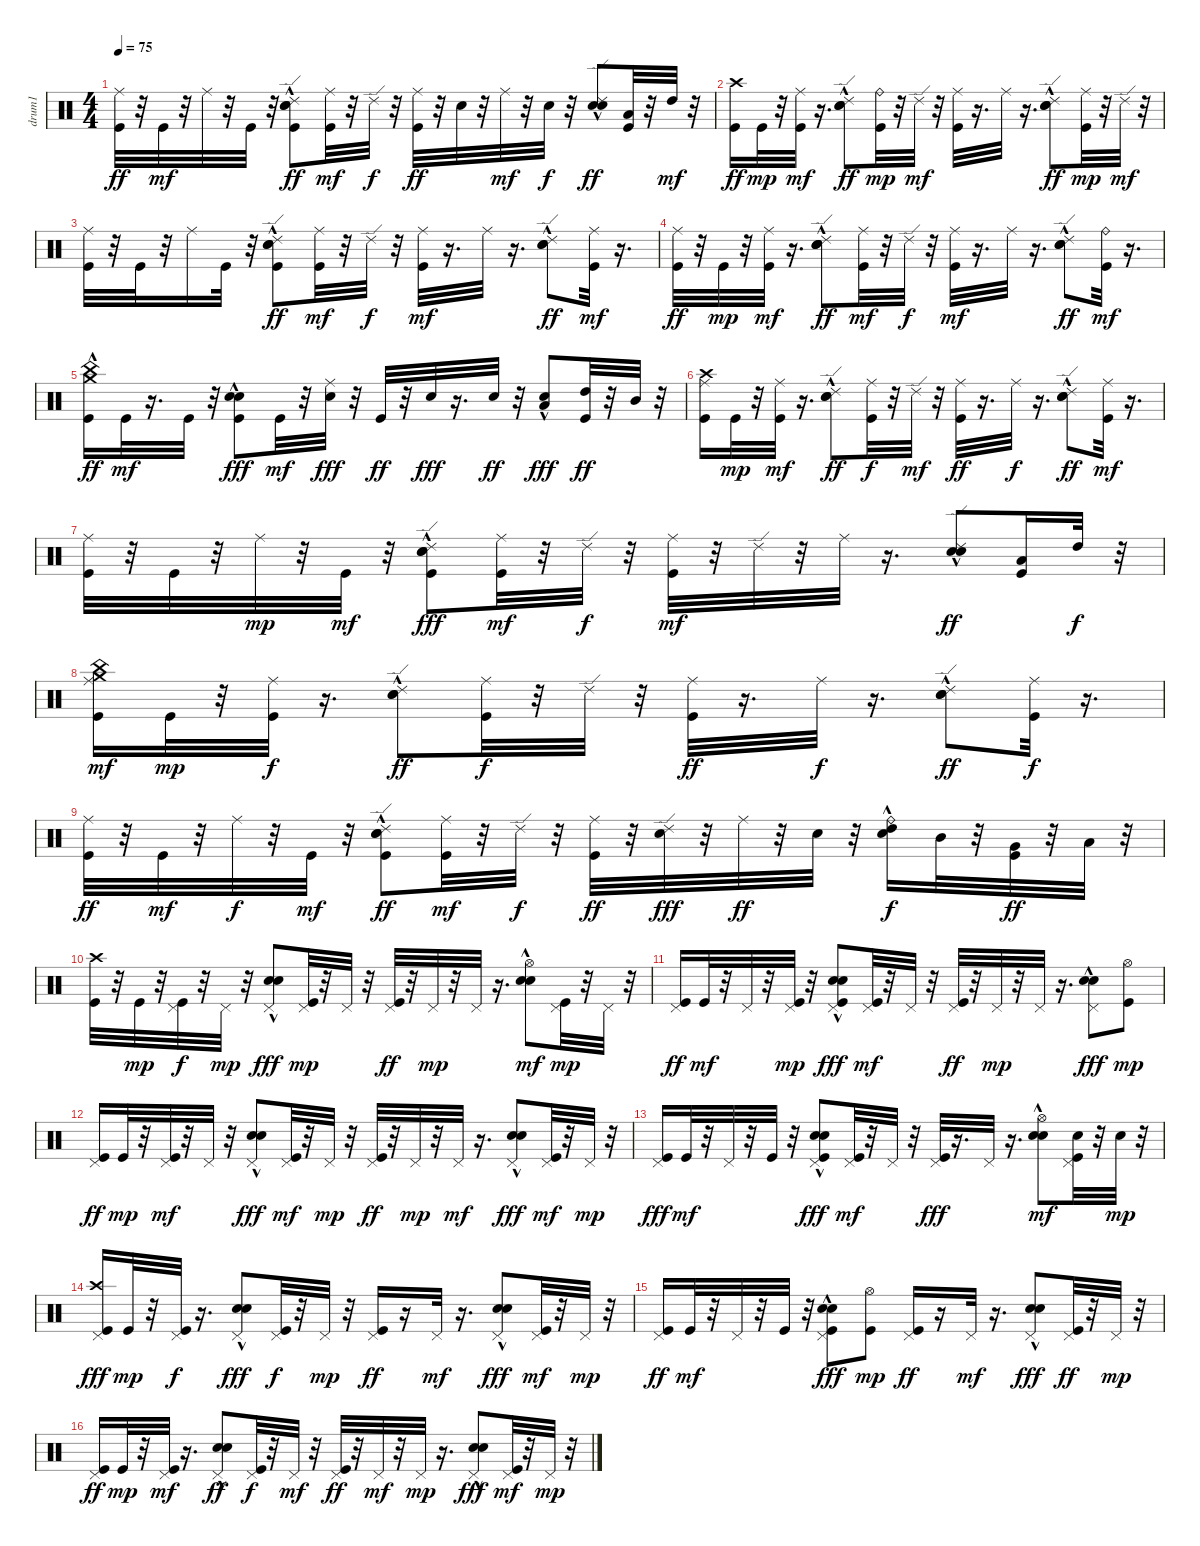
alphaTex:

\track ("drum1" "drum1") {instrument percussion}
\staff {score}
\articulation defaults
\ts (4 4)
\tempo 75
\clef neutral
\ks c
("Kick (hit)" "Ride (middle)").32{dy ff} r.32 "Kick (hit)".32{dy mf} r.32 "Ride (middle)".32 r.32 "Kick (hit)".32 r.32 ("Kick (hit)" "Hand Clap (hit)"{hac} "Electric Snare (hit)" "Ride (edge) 2").8{dy ff} ("Kick (hit)" "Ride (middle)").32{dy mf} r.32 "Ride (edge) 2".32{dy f} r.32 ("Kick (hit)" "Ride (middle)").32{dy ff} r.32 "Electric Snare (hit)".32 r.32 "Ride (middle)".32{dy mf} r.32 "Electric Snare (hit)".32{dy f} r.32 ("Hand Clap (hit)"{hac} "Electric Snare (hit)" "Ride (edge) 2").8{dy ff} ("Kick (hit)" "Low Tom (hit)").32 r.32 "High Tom (hit)".32{dy mf} r.32 |
("Kick (hit)" "Crash high (hit)").16{dy ff} "Kick (hit)".32{dy mp} r.32 ("Kick (hit)" "Ride (middle)").32{dy mf} r.16{d} ("Hand Clap (hit)"{hac} "Electric Snare (hit)" "Ride (edge) 2").8{dy ff} ("Kick (hit)" "Ride (bell)").32{dy mp} r.32 "Ride (edge) 2".32{dy mf} r.32 ("Kick (hit)" "Ride (middle)").32 r.16{d} "Ride (middle)".32 r.16{d} ("Hand Clap (hit)"{hac} "Electric Snare (hit)" "Ride (edge) 2").8{dy ff} ("Kick (hit)" "Ride (middle)").32{dy mp} r.32 "Ride (edge) 2".32{dy mf} r.32 |
("Kick (hit)" "Ride (middle)").32 r.32 "Kick (hit)".32 r.32 "Ride (middle)".16 "Kick (hit)".32 r.32 ("Kick (hit)" "Hand Clap (hit)"{hac} "Electric Snare (hit)" "Ride (edge) 2").8{dy ff} ("Kick (hit)" "Ride (middle)").32{dy mf} r.32 "Ride (edge) 2".32{dy f} r.32 ("Kick (hit)" "Ride (middle)").32{dy mf} r.16{d} "Ride (middle)".32 r.16{d} ("Hand Clap (hit)"{hac} "Electric Snare (hit)" "Ride (edge) 2").8{dy ff} ("Kick (hit)" "Ride (middle)").32{dy mf} r.16{d} |
("Kick (hit)" "Ride (middle)").32{dy ff} r.32 "Kick (hit)".32{dy mp} r.32 ("Kick (hit)" "Ride (middle)").32{dy mf} r.16{d} ("Snare (hit) 2" "Hand Clap (hit)"{hac} "Electric Snare (hit)" "Ride (edge) 2").8{dy ff} ("Kick (hit)" "Ride (middle)").32{dy mf} r.32 "Ride (edge) 2".32{dy f} r.32 ("Kick (hit)" "Ride (middle)").32{dy mf} r.16{d} "Ride (middle)".32 r.16{d} ("Hand Clap (hit)"{hac} "Electric Snare (hit)" "Ride (edge) 2").8{dy ff} ("Kick (hit)" "Ride (bell)").32{dy mf} r.16{d} |
("Kick (hit)" "China (hit)"{hac} "Crash medium (hit)").16{dy ff} "Kick (hit)".32{dy mf} r.16{d} "Kick (hit)".32 r.32 ("Kick (hit)" "Hand Clap (hit)"{hac} "Electric Snare (hit)").8{dy fff} "Kick (hit)".32{dy mf} r.32 ("Electric Snare (hit)" "Ride (middle)").32{dy fff} r.32 "Kick (hit)".32{dy ff} r.32 "Electric Snare (hit)".32{dy fff} r.16{d} "Electric Snare (hit)".32{dy ff} r.32 ("Hand Clap (hit)"{hac} "Low Tom (hit)").8{dy fff} ("Kick (hit)" "High Tom (hit)").32{dy ff} r.32 "Mid Tom (hit)".32 r.32 |
("Kick (hit)" "Crash high (hit)" "Ride (middle)").16 "Kick (hit)".32{dy mp} r.32 ("Kick (hit)" "Ride (middle)").32{dy mf} r.16{d} ("Hand Clap (hit)"{hac} "Electric Snare (hit)" "Ride (edge) 2").8{dy ff} ("Kick (hit)" "Ride (middle)").32{dy f} r.32 "Ride (edge) 2".32{dy mf} r.32 ("Kick (hit)" "Ride (middle)").32{dy ff} r.16{d} "Ride (middle)".32{dy f} r.16{d} ("Hand Clap (hit)"{hac} "Electric Snare (hit)" "Ride (edge) 2").8{dy ff} ("Kick (hit)" "Ride (middle)").32{dy mf} r.16{d} |
("Kick (hit)" "Ride (middle)").32 r.32 "Kick (hit)".32 r.32 "Ride (middle)".32{dy mp} r.32 "Kick (hit)".32{dy mf} r.32 ("Kick (hit)" "Hand Clap (hit)"{hac} "Electric Snare (hit)" "Ride (edge) 2").8{dy fff} ("Kick (hit)" "Ride (middle)").32{dy mf} r.32 "Ride (edge) 2".32{dy f} r.32 ("Kick (hit)" "Ride (middle)").32{dy mf} r.32 "Ride (edge) 2".32 r.32 "Ride (middle)".32 r.16{d} ("Hand Clap (hit)"{hac} "Electric Snare (hit)" "Ride (edge) 2").8{dy ff} ("Kick (hit)" "Low Tom (hit)").16 "High Tom (hit)".32{dy f} r.32 |
("Kick (hit)" "Ride (middle)" "China (hit)" "Crash medium (hit)").16{dy mf} "Kick (hit)".32{dy mp} r.32 ("Kick (hit)" "Ride (middle)").32{dy f} r.16{d} ("Hand Clap (hit)"{hac} "Electric Snare (hit)" "Ride (edge) 2").8{dy ff} ("Kick (hit)" "Ride (middle)").32{dy f} r.32 "Ride (edge) 2".32 r.32 ("Kick (hit)" "Ride (middle)").32{dy ff} r.16{d} "Ride (middle)".32{dy f} r.16{d} ("Hand Clap (hit)"{hac} "Electric Snare (hit)" "Ride (edge) 2").8{dy ff} ("Kick (hit)" "Ride (middle)").32{dy f} r.16{d} |
("Kick (hit)" "Ride (middle)").32{dy ff} r.32 "Kick (hit)".32{dy mf} r.32 "Ride (middle)".32{dy f} r.32 "Kick (hit)".32{dy mf} r.32 ("Kick (hit)" "Hand Clap (hit)"{hac} "Electric Snare (hit)" "Ride (edge) 2").8{dy ff} ("Kick (hit)" "Ride (middle)").32{dy mf} r.32 "Ride (edge) 2".32{dy f} r.32 ("Kick (hit)" "Ride (middle)").32{dy ff} r.32 ("Electric Snare (hit)" "Ride (edge) 2").32{dy fff} r.32 "Ride (middle)".32{dy ff} r.32 "Electric Snare (hit)".32 r.32 ("Hand Clap (hit)"{hac} "High Tom (hit)" "Ride (bell)").16{dy f} "Mid Tom (hit)".32 r.32 ("Kick (hit)" "Very Low Tom (hit)").32{dy ff} r.32 "Low Tom (hit)".32 r.32 |
("Kick (hit)" "Crash high (hit)").32 r.32 "Kick (hit)".32{dy mp} r.32 ("Kick (hit)" "Pedal Hi-Hat (hit)").32{dy f} r.32 "Pedal Hi-Hat (hit)".32{dy mp} r.32 ("Hand Clap (hit)"{hac} "Electric Snare (hit)" "Pedal Hi-Hat (hit)").8{dy fff} ("Kick (hit)" "Pedal Hi-Hat (hit)").32{dy mp} r.32 "Pedal Hi-Hat (hit)".32 r.32 ("Kick (hit)" "Pedal Hi-Hat (hit)").32{dy ff} r.32 "Pedal Hi-Hat (hit)".32{dy mp} r.32 "Pedal Hi-Hat (hit)".32 r.16{d} ("Hand Clap (hit)"{hac} "Electric Snare (hit)" "Hi-Hat (open)").8{dy mf} ("Kick (hit)" "Pedal Hi-Hat (hit)").32{dy mp} r.32 "Pedal Hi-Hat (hit)".32 r.32 |
("Kick (hit)" "Pedal Hi-Hat (hit)").16{dy ff} "Kick (hit)".32{dy mf} r.32 "Pedal Hi-Hat (hit)".32 r.32 ("Kick (hit)" "Pedal Hi-Hat (hit)").32{dy mp} r.32 ("Kick (hit)" "Hand Clap (hit)"{hac} "Electric Snare (hit)" "Pedal Hi-Hat (hit)").8{dy fff} ("Kick (hit)" "Pedal Hi-Hat (hit)").32{dy mf} r.32 "Pedal Hi-Hat (hit)".32 r.32 ("Kick (hit)" "Pedal Hi-Hat (hit)").32{dy ff} r.32 "Pedal Hi-Hat (hit)".32{dy mp} r.32 "Pedal Hi-Hat (hit)".32 r.16{d} ("Hand Clap (hit)"{hac} "Electric Snare (hit)" "Pedal Hi-Hat (hit)").8{dy fff} ("Kick (hit)" "Hi-Hat (open)").8{dy mp} |
("Kick (hit)" "Pedal Hi-Hat (hit)").16{dy ff} "Kick (hit)".32{dy mp} r.32 ("Kick (hit)" "Pedal Hi-Hat (hit)").32{dy mf} r.32 "Pedal Hi-Hat (hit)".32 r.32 ("Hand Clap (hit)"{hac} "Electric Snare (hit)" "Pedal Hi-Hat (hit)").8{dy fff} ("Kick (hit)" "Pedal Hi-Hat (hit)").32{dy mf} r.32 "Pedal Hi-Hat (hit)".32{dy mp} r.32 ("Kick (hit)" "Pedal Hi-Hat (hit)").32{dy ff} r.32 "Pedal Hi-Hat (hit)".32{dy mp} r.32 "Pedal Hi-Hat (hit)".32{dy mf} r.16{d} ("Hand Clap (hit)"{hac} "Electric Snare (hit)" "Pedal Hi-Hat (hit)").8{dy fff} ("Kick (hit)" "Pedal Hi-Hat (hit)").32{dy mf} r.32 "Pedal Hi-Hat (hit)".32{dy mp} r.32 |
("Kick (hit)" "Pedal Hi-Hat (hit)").16{dy fff} "Kick (hit)".32{dy mf} r.32 "Pedal Hi-Hat (hit)".32 r.32 "Kick (hit)".32 r.32 ("Kick (hit)" "Hand Clap (hit)"{hac} "Electric Snare (hit)" "Pedal Hi-Hat (hit)").8{dy fff} ("Kick (hit)" "Pedal Hi-Hat (hit)").32{dy mf} r.32 "Pedal Hi-Hat (hit)".32 r.32 ("Kick (hit)" "Pedal Hi-Hat (hit)").32{dy fff} r.16{d} "Pedal Hi-Hat (hit)".32 r.16{d} ("Hand Clap (hit)"{hac} "Electric Snare (hit)" "Hi-Hat (open)").8{dy mf} ("Kick (hit)" "Electric Snare (hit)" "Pedal Hi-Hat (hit)").32 r.32 "Electric Snare (hit)".32{dy mp} r.32 |
("Kick (hit)" "Pedal Hi-Hat (hit)" "Crash high (hit)").16{dy fff} "Kick (hit)".32{dy mp} r.32 ("Kick (hit)" "Pedal Hi-Hat (hit)").32{dy f} r.16{d} ("Hand Clap (hit)"{hac} "Electric Snare (hit)" "Pedal Hi-Hat (hit)").8{dy fff} ("Kick (hit)" "Pedal Hi-Hat (hit)").32{dy f} r.32 "Pedal Hi-Hat (hit)".32{dy mp} r.32 ("Kick (hit)" "Pedal Hi-Hat (hit)").16{dy ff} r.16 "Pedal Hi-Hat (hit)".32{dy mf} r.16{d} ("Hand Clap (hit)"{hac} "Electric Snare (hit)" "Pedal Hi-Hat (hit)").8{dy fff} ("Kick (hit)" "Pedal Hi-Hat (hit)").32{dy mf} r.32 "Pedal Hi-Hat (hit)".32{dy mp} r.32 |
("Kick (hit)" "Pedal Hi-Hat (hit)").16{dy ff} "Kick (hit)".32{dy mf} r.32 "Pedal Hi-Hat (hit)".32 r.32 "Kick (hit)".32 r.32 ("Kick (hit)" "Hand Clap (hit)"{hac} "Electric Snare (hit)" "Pedal Hi-Hat (hit)").8{dy fff} ("Kick (hit)" "Hi-Hat (open)").8{dy mp} ("Kick (hit)" "Pedal Hi-Hat (hit)").16{dy ff} r.16 "Pedal Hi-Hat (hit)".32{dy mf} r.16{d} ("Hand Clap (hit)"{hac} "Electric Snare (hit)" "Pedal Hi-Hat (hit)").8{dy fff} ("Kick (hit)" "Pedal Hi-Hat (hit)").32{dy ff} r.32 "Pedal Hi-Hat (hit)".32{dy mp} r.32 |
("Kick (hit)" "Pedal Hi-Hat (hit)").16{dy ff} "Kick (hit)".32{dy mp} r.32 ("Kick (hit)" "Pedal Hi-Hat (hit)").32{dy mf} r.16{d} ("Hand Clap (hit)"{hac} "Electric Snare (hit)"{hac} "Pedal Hi-Hat (hit)").8{dy ff} ("Kick (hit)" "Pedal Hi-Hat (hit)").32{dy f} r.32 "Pedal Hi-Hat (hit)".32{dy mf} r.32 ("Kick (hit)" "Pedal Hi-Hat (hit)").32{dy ff} r.32 "Pedal Hi-Hat (hit)".32{dy mf} r.32 "Pedal Hi-Hat (hit)".32{dy mp} r.16{d} ("Hand Clap (hit)"{hac} "Electric Snare (hit)" "Pedal Hi-Hat (hit)").8{dy fff} ("Kick (hit)" "Pedal Hi-Hat (hit)").32{dy mf} r.32 "Pedal Hi-Hat (hit)".32{dy mp} r.32
